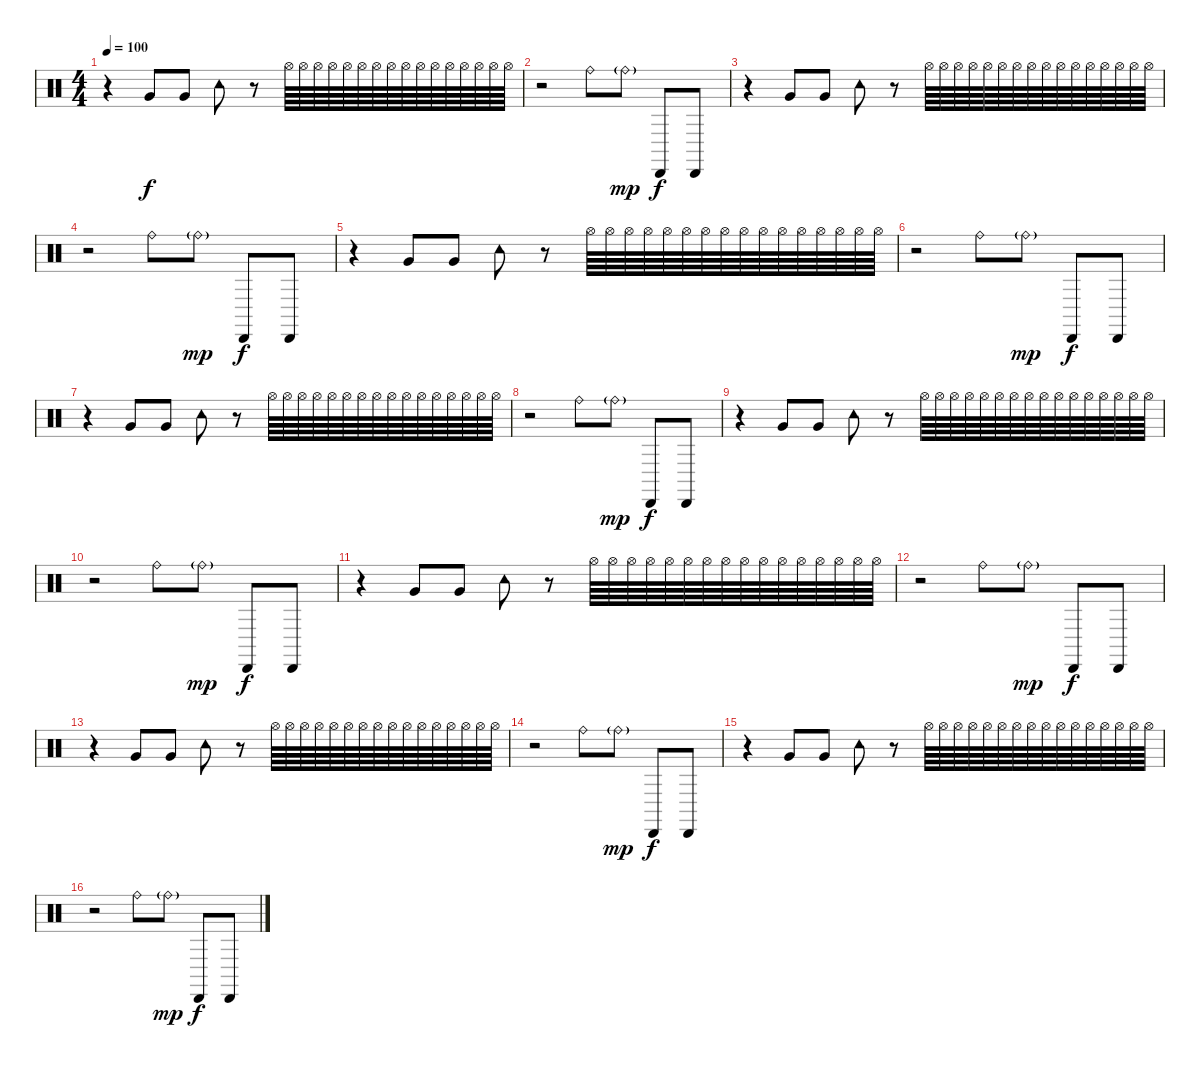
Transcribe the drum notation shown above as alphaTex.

\track "" {instrument percussion}
\staff {score}
\articulation defaults
\ts (4 4)
\tempo 100
\clef neutral
\ks c
r.4{dy f} "Very Low Tom (hit)".8 "Very Low Tom (hit)".8 "Tambourine (hit)".8 r.8 "Hi-Hat (open)".64 "Hi-Hat (open)".64 "Hi-Hat (open)".64 "Hi-Hat (open)".64 "Hi-Hat (open)".64 "Hi-Hat (open)".64 "Hi-Hat (open)".64 "Hi-Hat (open)".64 "Hi-Hat (open)".64 "Hi-Hat (open)".64 "Hi-Hat (open)".64 "Hi-Hat (open)".64 "Hi-Hat (open)".64 "Hi-Hat (open)".64 "Hi-Hat (open)".64 "Hi-Hat (open)".64 |
r.2 "Ride (bell)".8 "Ride (bell)"{g}.8{dy mp} "Cabasa (hit)".8{dy f} "Cabasa (hit)".8 |
r.4 "Very Low Tom (hit)".8 "Very Low Tom (hit)".8 "Tambourine (hit)".8 r.8 "Hi-Hat (open)".64 "Hi-Hat (open)".64 "Hi-Hat (open)".64 "Hi-Hat (open)".64 "Hi-Hat (open)".64 "Hi-Hat (open)".64 "Hi-Hat (open)".64 "Hi-Hat (open)".64 "Hi-Hat (open)".64 "Hi-Hat (open)".64 "Hi-Hat (open)".64 "Hi-Hat (open)".64 "Hi-Hat (open)".64 "Hi-Hat (open)".64 "Hi-Hat (open)".64 "Hi-Hat (open)".64 |
r.2 "Ride (bell)".8 "Ride (bell)"{g}.8{dy mp} "Cabasa (hit)".8{dy f} "Cabasa (hit)".8 |
r.4 "Very Low Tom (hit)".8 "Very Low Tom (hit)".8 "Tambourine (hit)".8 r.8 "Hi-Hat (open)".64 "Hi-Hat (open)".64 "Hi-Hat (open)".64 "Hi-Hat (open)".64 "Hi-Hat (open)".64 "Hi-Hat (open)".64 "Hi-Hat (open)".64 "Hi-Hat (open)".64 "Hi-Hat (open)".64 "Hi-Hat (open)".64 "Hi-Hat (open)".64 "Hi-Hat (open)".64 "Hi-Hat (open)".64 "Hi-Hat (open)".64 "Hi-Hat (open)".64 "Hi-Hat (open)".64 |
r.2 "Ride (bell)".8 "Ride (bell)"{g}.8{dy mp} "Cabasa (hit)".8{dy f} "Cabasa (hit)".8 |
r.4 "Very Low Tom (hit)".8 "Very Low Tom (hit)".8 "Tambourine (hit)".8 r.8 "Hi-Hat (open)".64 "Hi-Hat (open)".64 "Hi-Hat (open)".64 "Hi-Hat (open)".64 "Hi-Hat (open)".64 "Hi-Hat (open)".64 "Hi-Hat (open)".64 "Hi-Hat (open)".64 "Hi-Hat (open)".64 "Hi-Hat (open)".64 "Hi-Hat (open)".64 "Hi-Hat (open)".64 "Hi-Hat (open)".64 "Hi-Hat (open)".64 "Hi-Hat (open)".64 "Hi-Hat (open)".64 |
r.2 "Ride (bell)".8 "Ride (bell)"{g}.8{dy mp} "Cabasa (hit)".8{dy f} "Cabasa (hit)".8 |
r.4 "Very Low Tom (hit)".8 "Very Low Tom (hit)".8 "Tambourine (hit)".8 r.8 "Hi-Hat (open)".64 "Hi-Hat (open)".64 "Hi-Hat (open)".64 "Hi-Hat (open)".64 "Hi-Hat (open)".64 "Hi-Hat (open)".64 "Hi-Hat (open)".64 "Hi-Hat (open)".64 "Hi-Hat (open)".64 "Hi-Hat (open)".64 "Hi-Hat (open)".64 "Hi-Hat (open)".64 "Hi-Hat (open)".64 "Hi-Hat (open)".64 "Hi-Hat (open)".64 "Hi-Hat (open)".64 |
r.2 "Ride (bell)".8 "Ride (bell)"{g}.8{dy mp} "Cabasa (hit)".8{dy f} "Cabasa (hit)".8 |
r.4 "Very Low Tom (hit)".8 "Very Low Tom (hit)".8 "Tambourine (hit)".8 r.8 "Hi-Hat (open)".64 "Hi-Hat (open)".64 "Hi-Hat (open)".64 "Hi-Hat (open)".64 "Hi-Hat (open)".64 "Hi-Hat (open)".64 "Hi-Hat (open)".64 "Hi-Hat (open)".64 "Hi-Hat (open)".64 "Hi-Hat (open)".64 "Hi-Hat (open)".64 "Hi-Hat (open)".64 "Hi-Hat (open)".64 "Hi-Hat (open)".64 "Hi-Hat (open)".64 "Hi-Hat (open)".64 |
r.2 "Ride (bell)".8 "Ride (bell)"{g}.8{dy mp} "Cabasa (hit)".8{dy f} "Cabasa (hit)".8 |
r.4 "Very Low Tom (hit)".8 "Very Low Tom (hit)".8 "Tambourine (hit)".8 r.8 "Hi-Hat (open)".64 "Hi-Hat (open)".64 "Hi-Hat (open)".64 "Hi-Hat (open)".64 "Hi-Hat (open)".64 "Hi-Hat (open)".64 "Hi-Hat (open)".64 "Hi-Hat (open)".64 "Hi-Hat (open)".64 "Hi-Hat (open)".64 "Hi-Hat (open)".64 "Hi-Hat (open)".64 "Hi-Hat (open)".64 "Hi-Hat (open)".64 "Hi-Hat (open)".64 "Hi-Hat (open)".64 |
r.2 "Ride (bell)".8 "Ride (bell)"{g}.8{dy mp} "Cabasa (hit)".8{dy f} "Cabasa (hit)".8 |
r.4 "Very Low Tom (hit)".8 "Very Low Tom (hit)".8 "Tambourine (hit)".8 r.8 "Hi-Hat (open)".64 "Hi-Hat (open)".64 "Hi-Hat (open)".64 "Hi-Hat (open)".64 "Hi-Hat (open)".64 "Hi-Hat (open)".64 "Hi-Hat (open)".64 "Hi-Hat (open)".64 "Hi-Hat (open)".64 "Hi-Hat (open)".64 "Hi-Hat (open)".64 "Hi-Hat (open)".64 "Hi-Hat (open)".64 "Hi-Hat (open)".64 "Hi-Hat (open)".64 "Hi-Hat (open)".64 |
r.2 "Ride (bell)".8 "Ride (bell)"{g}.8{dy mp} "Cabasa (hit)".8{dy f} "Cabasa (hit)".8
